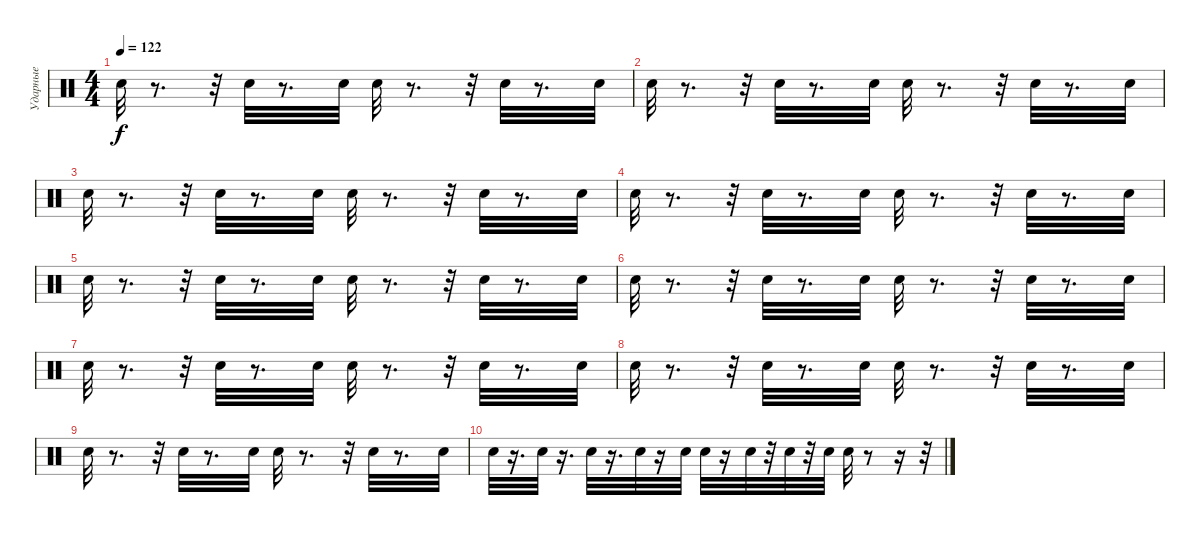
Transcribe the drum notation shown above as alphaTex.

\track ("Ударные" "Ударные") {instrument percussion}
\staff {score}
\articulation defaults
\ts (4 4)
\tempo 122
\clef neutral
\ks c "Snare (hit) 2".32{dy f}
r.8{d} r.32 "Snare (hit) 2".32 r.8{d} "Snare (hit) 2".32 "Snare (hit) 2".32 r.8{d} r.32 "Snare (hit) 2".32 r.8{d} "Snare (hit) 2".32 |
"Snare (hit) 2".32 r.8{d} r.32 "Snare (hit) 2".32 r.8{d} "Snare (hit) 2".32 "Snare (hit) 2".32 r.8{d} r.32 "Snare (hit) 2".32 r.8{d} "Snare (hit) 2".32 |
"Snare (hit) 2".32 r.8{d} r.32 "Snare (hit) 2".32 r.8{d} "Snare (hit) 2".32 "Snare (hit) 2".32 r.8{d} r.32 "Snare (hit) 2".32 r.8{d} "Snare (hit) 2".32 |
"Snare (hit) 2".32 r.8{d} r.32 "Snare (hit) 2".32 r.8{d} "Snare (hit) 2".32 "Snare (hit) 2".32 r.8{d} r.32 "Snare (hit) 2".32 r.8{d} "Snare (hit) 2".32 |
"Snare (hit) 2".32 r.8{d} r.32 "Snare (hit) 2".32 r.8{d} "Snare (hit) 2".32 "Snare (hit) 2".32 r.8{d} r.32 "Snare (hit) 2".32 r.8{d} "Snare (hit) 2".32 |
"Snare (hit) 2".32 r.8{d} r.32 "Snare (hit) 2".32 r.8{d} "Snare (hit) 2".32 "Snare (hit) 2".32 r.8{d} r.32 "Snare (hit) 2".32 r.8{d} "Snare (hit) 2".32 |
"Snare (hit) 2".32 r.8{d} r.32 "Snare (hit) 2".32 r.8{d} "Snare (hit) 2".32 "Snare (hit) 2".32 r.8{d} r.32 "Snare (hit) 2".32 r.8{d} "Snare (hit) 2".32 |
"Snare (hit) 2".32 r.8{d} r.32 "Snare (hit) 2".32 r.8{d} "Snare (hit) 2".32 "Snare (hit) 2".32 r.8{d} r.32 "Snare (hit) 2".32 r.8{d} "Snare (hit) 2".32 |
"Snare (hit) 2".32 r.8{d} r.32 "Snare (hit) 2".32 r.8{d} "Snare (hit) 2".32 "Snare (hit) 2".32 r.8{d} r.32 "Snare (hit) 2".32 r.8{d} "Snare (hit) 2".32 |
"Snare (hit) 2".32 r.16{d} "Snare (hit) 2".32 r.16{d} "Snare (hit) 2".32 r.16{d} "Snare (hit) 2".32 r.16 "Snare (hit) 2".32 "Snare (hit) 2".32 r.16 "Snare (hit) 2".32 r.32 "Snare (hit) 2".32 r.32 "Snare (hit) 2".32 "Snare (hit) 2".32 r.8 r.16 r.32
